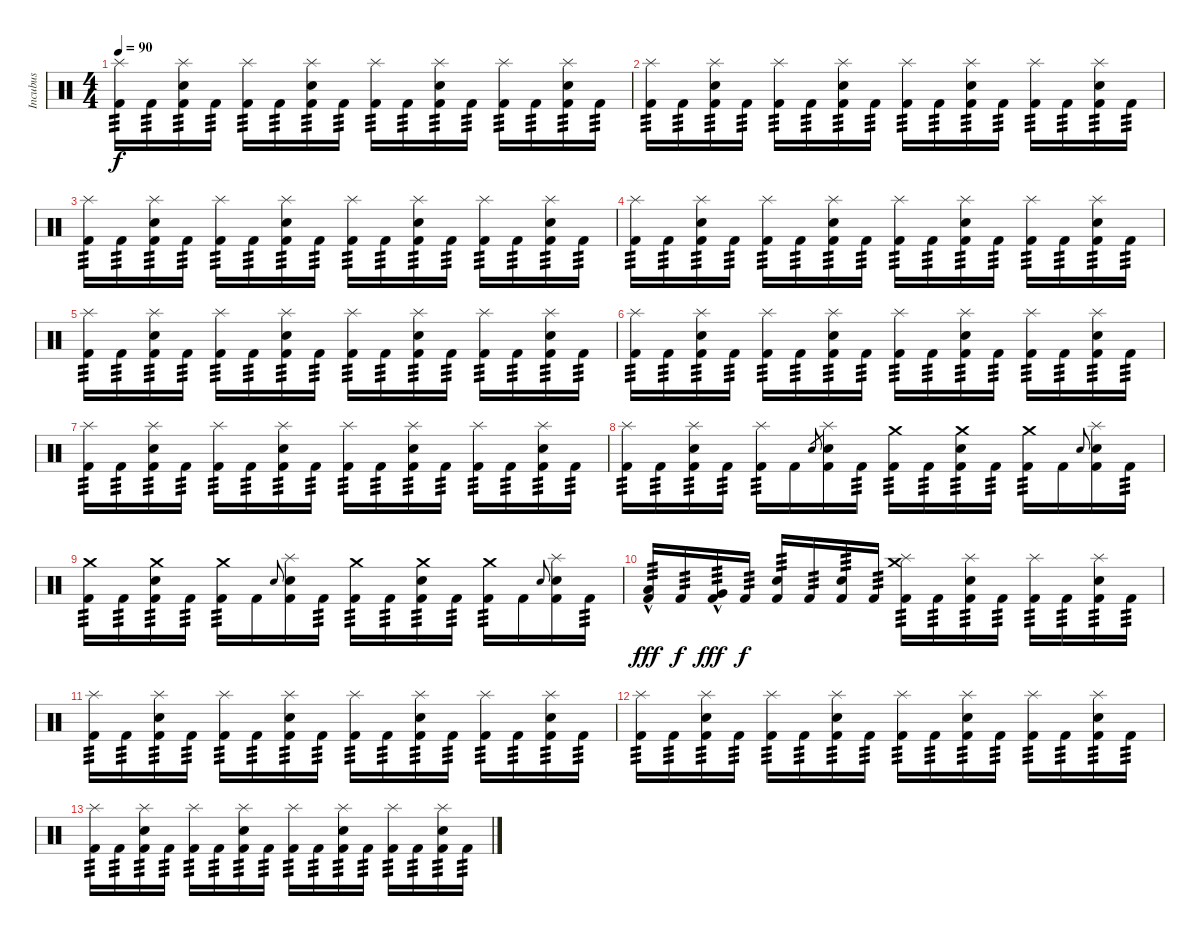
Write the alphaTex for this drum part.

\track ("Incubus" "Incubus") {instrument percussion}
\staff {score}
\articulation defaults
\ts (4 4)
\tempo 90
\clef neutral
\ks c
("Splash (hit)" "Kick (hit) 2").16{tp 3 dy f} "Kick (hit) 2".16{tp 3} ("Splash (hit)" "Snare (hit) 2" "Kick (hit) 2").16{tp 3} "Kick (hit) 2".16{tp 3} ("Splash (hit)" "Kick (hit) 2").16{tp 3} "Kick (hit) 2".16{tp 3} ("Splash (hit)" "Snare (hit) 2" "Kick (hit) 2").16{tp 3} "Kick (hit) 2".16{tp 3} ("Splash (hit)" "Kick (hit) 2").16{tp 3} "Kick (hit) 2".16{tp 3} ("Splash (hit)" "Snare (hit) 2" "Kick (hit) 2").16{tp 3} "Kick (hit) 2".16{tp 3} ("Splash (hit)" "Kick (hit) 2").16{tp 3} "Kick (hit) 2".16{tp 3} ("Splash (hit)" "Snare (hit) 2" "Kick (hit) 2").16{tp 3} "Kick (hit) 2".16{tp 3} |
("Splash (hit)" "Kick (hit) 2").16{tp 3} "Kick (hit) 2".16{tp 3} ("Splash (hit)" "Snare (hit) 2" "Kick (hit) 2").16{tp 3} "Kick (hit) 2".16{tp 3} ("Splash (hit)" "Kick (hit) 2").16{tp 3} "Kick (hit) 2".16{tp 3} ("Splash (hit)" "Snare (hit) 2" "Kick (hit) 2").16{tp 3} "Kick (hit) 2".16{tp 3} ("Splash (hit)" "Kick (hit) 2").16{tp 3} "Kick (hit) 2".16{tp 3} ("Splash (hit)" "Snare (hit) 2" "Kick (hit) 2").16{tp 3} "Kick (hit) 2".16{tp 3} ("Splash (hit)" "Kick (hit) 2").16{tp 3} "Kick (hit) 2".16{tp 3} ("Splash (hit)" "Snare (hit) 2" "Kick (hit) 2").16{tp 3} "Kick (hit) 2".16{tp 3} |
("Splash (hit)" "Kick (hit) 2").16{tp 3} "Kick (hit) 2".16{tp 3} ("Splash (hit)" "Snare (hit) 2" "Kick (hit) 2").16{tp 3} "Kick (hit) 2".16{tp 3} ("Splash (hit)" "Kick (hit) 2").16{tp 3} "Kick (hit) 2".16{tp 3} ("Splash (hit)" "Snare (hit) 2" "Kick (hit) 2").16{tp 3} "Kick (hit) 2".16{tp 3} ("Splash (hit)" "Kick (hit) 2").16{tp 3} "Kick (hit) 2".16{tp 3} ("Splash (hit)" "Snare (hit) 2" "Kick (hit) 2").16{tp 3} "Kick (hit) 2".16{tp 3} ("Splash (hit)" "Kick (hit) 2").16{tp 3} "Kick (hit) 2".16{tp 3} ("Splash (hit)" "Snare (hit) 2" "Kick (hit) 2").16{tp 3} "Kick (hit) 2".16{tp 3} |
("Splash (hit)" "Kick (hit) 2").16{tp 3} "Kick (hit) 2".16{tp 3} ("Splash (hit)" "Snare (hit) 2" "Kick (hit) 2").16{tp 3} "Kick (hit) 2".16{tp 3} ("Splash (hit)" "Kick (hit) 2").16{tp 3} "Kick (hit) 2".16{tp 3} ("Splash (hit)" "Snare (hit) 2" "Kick (hit) 2").16{tp 3} "Kick (hit) 2".16{tp 3} ("Splash (hit)" "Kick (hit) 2").16{tp 3} "Kick (hit) 2".16{tp 3} ("Splash (hit)" "Snare (hit) 2" "Kick (hit) 2").16{tp 3} "Kick (hit) 2".16{tp 3} ("Splash (hit)" "Kick (hit) 2").16{tp 3} "Kick (hit) 2".16{tp 3} ("Splash (hit)" "Snare (hit) 2" "Kick (hit) 2").16{tp 3} "Kick (hit) 2".16{tp 3} |
("Splash (hit)" "Kick (hit) 2").16{tp 3} "Kick (hit) 2".16{tp 3} ("Splash (hit)" "Snare (hit) 2" "Kick (hit) 2").16{tp 3} "Kick (hit) 2".16{tp 3} ("Splash (hit)" "Kick (hit) 2").16{tp 3} "Kick (hit) 2".16{tp 3} ("Splash (hit)" "Snare (hit) 2" "Kick (hit) 2").16{tp 3} "Kick (hit) 2".16{tp 3} ("Splash (hit)" "Kick (hit) 2").16{tp 3} "Kick (hit) 2".16{tp 3} ("Splash (hit)" "Snare (hit) 2" "Kick (hit) 2").16{tp 3} "Kick (hit) 2".16{tp 3} ("Splash (hit)" "Kick (hit) 2").16{tp 3} "Kick (hit) 2".16{tp 3} ("Splash (hit)" "Snare (hit) 2" "Kick (hit) 2").16{tp 3} "Kick (hit) 2".16{tp 3} |
("Splash (hit)" "Kick (hit) 2").16{tp 3} "Kick (hit) 2".16{tp 3} ("Splash (hit)" "Snare (hit) 2" "Kick (hit) 2").16{tp 3} "Kick (hit) 2".16{tp 3} ("Splash (hit)" "Kick (hit) 2").16{tp 3} "Kick (hit) 2".16{tp 3} ("Splash (hit)" "Snare (hit) 2" "Kick (hit) 2").16{tp 3} "Kick (hit) 2".16{tp 3} ("Splash (hit)" "Kick (hit) 2").16{tp 3} "Kick (hit) 2".16{tp 3} ("Splash (hit)" "Snare (hit) 2" "Kick (hit) 2").16{tp 3} "Kick (hit) 2".16{tp 3} ("Splash (hit)" "Kick (hit) 2").16{tp 3} "Kick (hit) 2".16{tp 3} ("Splash (hit)" "Snare (hit) 2" "Kick (hit) 2").16{tp 3} "Kick (hit) 2".16{tp 3} |
("Splash (hit)" "Kick (hit) 2").16{tp 3} "Kick (hit) 2".16{tp 3} ("Splash (hit)" "Snare (hit) 2" "Kick (hit) 2").16{tp 3} "Kick (hit) 2".16{tp 3} ("Splash (hit)" "Kick (hit) 2").16{tp 3} "Kick (hit) 2".16{tp 3} ("Splash (hit)" "Snare (hit) 2" "Kick (hit) 2").16{tp 3} "Kick (hit) 2".16{tp 3} ("Splash (hit)" "Kick (hit) 2").16{tp 3} "Kick (hit) 2".16{tp 3} ("Splash (hit)" "Snare (hit) 2" "Kick (hit) 2").16{tp 3} "Kick (hit) 2".16{tp 3} ("Splash (hit)" "Kick (hit) 2").16{tp 3} "Kick (hit) 2".16{tp 3} ("Splash (hit)" "Snare (hit) 2" "Kick (hit) 2").16{tp 3} "Kick (hit) 2".16{tp 3} |
("Splash (hit)" "Kick (hit) 2").16{tp 3} "Kick (hit) 2".16{tp 3} ("Splash (hit)" "Snare (hit) 2" "Kick (hit) 2").16{tp 3} "Kick (hit) 2".16{tp 3} ("Splash (hit)" "Kick (hit) 2").16{tp 3} "Kick (hit) 2".16 "Snare (hit) 2".8{gr} ("Splash (hit)" "Snare (hit) 2" "Kick (hit) 2").16 "Kick (hit) 2".16{tp 3} ("Crash medium (hit)" "Kick (hit) 2").16{tp 3} "Kick (hit) 2".16{tp 3} ("Crash medium (hit)" "Snare (hit) 2" "Kick (hit) 2").16{tp 3} "Kick (hit) 2".16{tp 3} ("Crash medium (hit)" "Kick (hit) 2").16{tp 3} "Kick (hit) 2".16 "Snare (hit) 2".8{gr onbeat} ("Splash (hit)" "Snare (hit) 2" "Kick (hit) 2").16 "Kick (hit) 2".16{tp 3} |
("Crash medium (hit)" "Kick (hit) 2").16{tp 3} "Kick (hit) 2".16{tp 3} ("Crash medium (hit)" "Snare (hit) 2" "Kick (hit) 2").16{tp 3} "Kick (hit) 2".16{tp 3} ("Crash medium (hit)" "Kick (hit) 2").16{tp 3} "Kick (hit) 2".16 "Snare (hit) 2".8{gr onbeat} ("Splash (hit)" "Snare (hit) 2" "Kick (hit) 2").16 "Kick (hit) 2".16{tp 3} ("Crash medium (hit)" "Kick (hit) 2").16{tp 3} "Kick (hit) 2".16{tp 3} ("Crash medium (hit)" "Snare (hit) 2" "Kick (hit) 2").16{tp 3} "Kick (hit) 2".16{tp 3} ("Crash medium (hit)" "Kick (hit) 2").16{tp 3} "Kick (hit) 2".16 "Snare (hit) 2".8{gr onbeat} ("Splash (hit)" "Snare (hit) 2" "Kick (hit) 2").16 "Kick (hit) 2".16{tp 3} |
("Low Floor Tom (hit)"{hac} "Kick (hit) 2").16{tp 3 dy fff} "Kick (hit) 2".16{tp 3 dy f} ("Very Low Tom (hit)"{hac} "Kick (hit) 2").16{tp 3 dy fff} "Kick (hit) 2".16{tp 3 dy f} ("Snare (hit) 2" "Kick (hit) 2").16{tp 3} "Kick (hit) 2".16{tp 3} ("Snare (hit) 2" "Kick (hit) 2").16{tp 3} "Kick (hit) 2".16{tp 3} ("Crash medium (hit)" "Splash (hit)" "Kick (hit) 2").16{tp 3} "Kick (hit) 2".16{tp 3} ("Splash (hit)" "Snare (hit) 2" "Kick (hit) 2").16{tp 3} "Kick (hit) 2".16{tp 3} ("Splash (hit)" "Kick (hit) 2").16{tp 3} "Kick (hit) 2".16{tp 3} ("Splash (hit)" "Snare (hit) 2" "Kick (hit) 2").16{tp 3} "Kick (hit) 2".16{tp 3 volume 0} |
("Splash (hit)" "Kick (hit) 2").16{tp 3} "Kick (hit) 2".16{tp 3} ("Splash (hit)" "Snare (hit) 2" "Kick (hit) 2").16{tp 3} "Kick (hit) 2".16{tp 3} ("Splash (hit)" "Kick (hit) 2").16{tp 3} "Kick (hit) 2".16{tp 3} ("Splash (hit)" "Snare (hit) 2" "Kick (hit) 2").16{tp 3} "Kick (hit) 2".16{tp 3} ("Splash (hit)" "Kick (hit) 2").16{tp 3} "Kick (hit) 2".16{tp 3} ("Splash (hit)" "Snare (hit) 2" "Kick (hit) 2").16{tp 3} "Kick (hit) 2".16{tp 3} ("Splash (hit)" "Kick (hit) 2").16{tp 3} "Kick (hit) 2".16{tp 3} ("Splash (hit)" "Snare (hit) 2" "Kick (hit) 2").16{tp 3} "Kick (hit) 2".16{tp 3} |
("Splash (hit)" "Kick (hit) 2").16{tp 3} "Kick (hit) 2".16{tp 3} ("Splash (hit)" "Snare (hit) 2" "Kick (hit) 2").16{tp 3} "Kick (hit) 2".16{tp 3} ("Splash (hit)" "Kick (hit) 2").16{tp 3} "Kick (hit) 2".16{tp 3} ("Splash (hit)" "Snare (hit) 2" "Kick (hit) 2").16{tp 3} "Kick (hit) 2".16{tp 3} ("Splash (hit)" "Kick (hit) 2").16{tp 3} "Kick (hit) 2".16{tp 3} ("Splash (hit)" "Snare (hit) 2" "Kick (hit) 2").16{tp 3} "Kick (hit) 2".16{tp 3} ("Splash (hit)" "Kick (hit) 2").16{tp 3} "Kick (hit) 2".16{tp 3} ("Splash (hit)" "Snare (hit) 2" "Kick (hit) 2").16{tp 3} "Kick (hit) 2".16{tp 3} |
("Splash (hit)" "Kick (hit) 2").16{tp 3} "Kick (hit) 2".16{tp 3} ("Splash (hit)" "Snare (hit) 2" "Kick (hit) 2").16{tp 3} "Kick (hit) 2".16{tp 3} ("Splash (hit)" "Kick (hit) 2").16{tp 3} "Kick (hit) 2".16{tp 3} ("Splash (hit)" "Snare (hit) 2" "Kick (hit) 2").16{tp 3} "Kick (hit) 2".16{tp 3} ("Splash (hit)" "Kick (hit) 2").16{tp 3} "Kick (hit) 2".16{tp 3} ("Splash (hit)" "Snare (hit) 2" "Kick (hit) 2").16{tp 3} "Kick (hit) 2".16{tp 3} ("Splash (hit)" "Kick (hit) 2").16{tp 3} "Kick (hit) 2".16{tp 3} ("Splash (hit)" "Snare (hit) 2" "Kick (hit) 2").16{tp 3} "Kick (hit) 2".16{tp 3}
